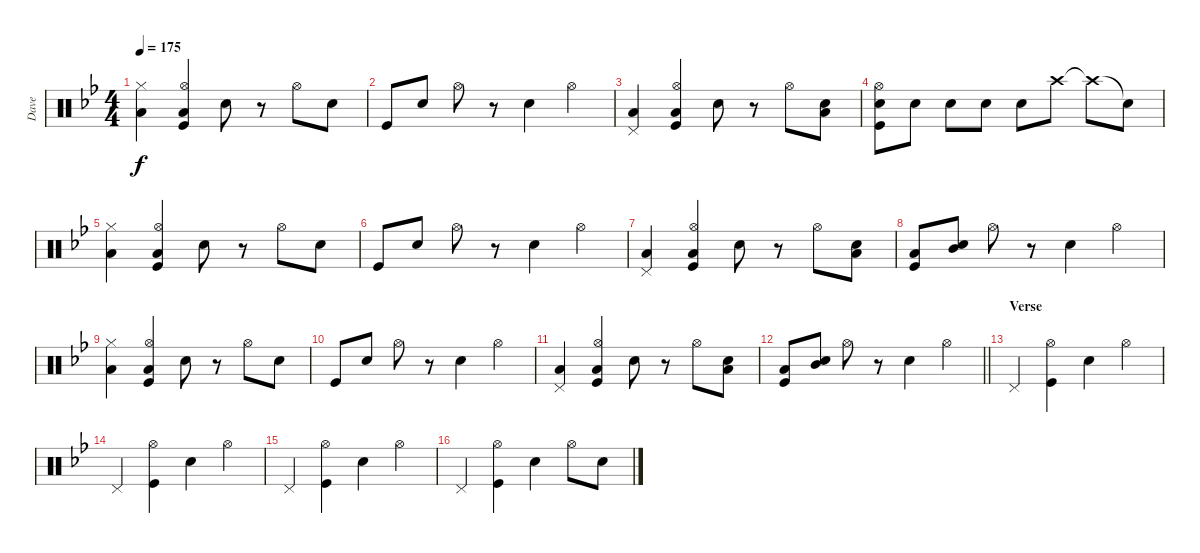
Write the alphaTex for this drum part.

\track ("Dave" "Dave") {instrument percussion}
\staff {score}
\articulation defaults
\ts (4 4)
\tempo 175
\clef neutral
\ks gminor
("Hi-Hat (closed)" "Low Floor Tom (hit)").4{dy f} ("Hi-Hat (open)" "Low Floor Tom (hit)" "Kick (hit)").4 "Snare (hit) 2".8 r.8 "Hi-Hat (open)".8 "Snare (hit) 2".8 |
"Kick (hit)".8 "Snare (hit) 2".8 "Hi-Hat (open)".8 r.8 "Snare (hit) 2".4 "Hi-Hat (open)".4 |
("Pedal Hi-Hat (hit)" "Low Floor Tom (hit)").4 ("Hi-Hat (open)" "Low Floor Tom (hit)" "Kick (hit)").4 "Snare (hit) 2".8 r.8 "Hi-Hat (open)".8 ("Snare (hit) 2" "Low Floor Tom (hit)").8 |
("Hi-Hat (open)" "Snare (hit) 2" "Kick (hit)").8 "Snare (hit) 2".8 "Snare (hit) 2".8 "Snare (hit) 2".8 "Snare (hit) 2".8 "Crash high (hit)".8 "Crash high (hit)"{t}.8 "Snare (hit)"{t}.8 |
("Hi-Hat (closed)" "Low Floor Tom (hit)").4 ("Hi-Hat (open)" "Low Floor Tom (hit)" "Kick (hit)").4 "Snare (hit) 2".8 r.8 "Hi-Hat (open)".8 "Snare (hit) 2".8 |
"Kick (hit)".8 "Snare (hit) 2".8 "Hi-Hat (open)".8 r.8 "Snare (hit) 2".4 "Hi-Hat (open)".4 |
("Pedal Hi-Hat (hit)" "Low Floor Tom (hit)").4 ("Hi-Hat (open)" "Low Floor Tom (hit)" "Kick (hit)").4 "Snare (hit) 2".8 r.8 "Hi-Hat (open)".8 ("Snare (hit) 2" "Low Floor Tom (hit)").8 |
("Low Tom (hit)" "Kick (hit)").8 ("Snare (hit) 2" "Mid Tom (hit)").8 "Hi-Hat (open)".8 r.8 "Snare (hit) 2".4 "Hi-Hat (open)".4 |
("Hi-Hat (closed)" "Low Floor Tom (hit)").4 ("Hi-Hat (open)" "Low Floor Tom (hit)" "Kick (hit)").4 "Snare (hit) 2".8 r.8 "Hi-Hat (open)".8 "Snare (hit) 2".8 |
"Kick (hit)".8 "Snare (hit) 2".8 "Hi-Hat (open)".8 r.8 "Snare (hit) 2".4 "Hi-Hat (open)".4 |
("Pedal Hi-Hat (hit)" "Low Floor Tom (hit)").4 ("Hi-Hat (open)" "Low Floor Tom (hit)" "Kick (hit)").4 "Snare (hit) 2".8 r.8 "Hi-Hat (open)".8 ("Snare (hit) 2" "Low Floor Tom (hit)").8 |
\barLineRight lightlight
("Low Tom (hit)" "Kick (hit)").8 ("Snare (hit) 2" "Mid Tom (hit)").8 "Hi-Hat (open)".8 r.8 "Snare (hit) 2".4 "Hi-Hat (open)".4 |
\section ("" "Verse")
"Pedal Hi-Hat (hit)".4 ("Hi-Hat (open)" "Kick (hit)").4 "Snare (hit) 2".4 "Hi-Hat (open)".4 |
"Pedal Hi-Hat (hit)".4 ("Hi-Hat (open)" "Kick (hit)").4 "Snare (hit) 2".4 "Hi-Hat (open)".4 |
"Pedal Hi-Hat (hit)".4 ("Hi-Hat (open)" "Kick (hit)").4 "Snare (hit) 2".4 "Hi-Hat (open)".4 |
"Pedal Hi-Hat (hit)".4 ("Hi-Hat (open)" "Kick (hit)").4 "Snare (hit) 2".4 "Hi-Hat (open)".8 "Snare (hit) 2".8
